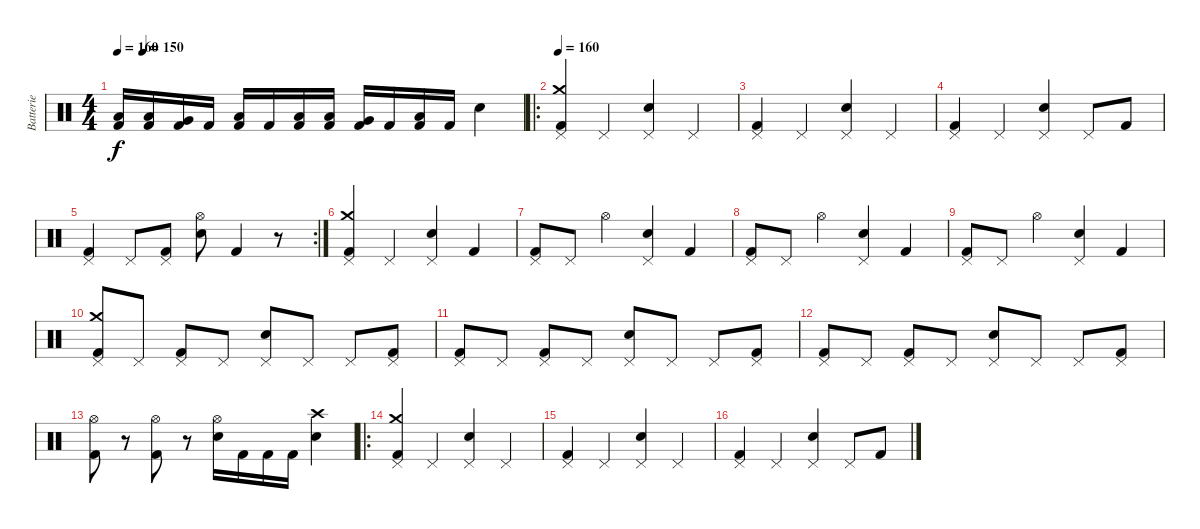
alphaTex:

\track ("Batterie" "Batterie") {instrument percussion}
\staff {score}
\articulation defaults
\ts (4 4)
\tempo 160
\tempo 125
\tempo (150 0.0625)
\tempo 160
\clef neutral
\ks c
("Low Tom (hit)" "Kick (hit) 2").16{dy f} ("Low Floor Tom (hit)" "Kick (hit) 2").16 ("Very Low Tom (hit)" "Kick (hit) 2").16 "Kick (hit) 2".16 ("Low Tom (hit)" "Kick (hit) 2").16 "Kick (hit) 2".16 ("Low Tom (hit)" "Kick (hit) 2").16 ("Low Floor Tom (hit)" "Kick (hit) 2").16 ("Very Low Tom (hit)" "Kick (hit) 2").16 "Kick (hit) 2".16 ("Low Tom (hit)" "Kick (hit) 2").16 "Kick (hit) 2".16 "Electric Snare (hit)".4 |
\ro
\tempo 160
("Crash medium (hit)" "Pedal Hi-Hat (hit)" "Kick (hit) 2").4 "Pedal Hi-Hat (hit)".4 ("Pedal Hi-Hat (hit)" "Electric Snare (hit)").4 "Pedal Hi-Hat (hit)".4 |
("Pedal Hi-Hat (hit)" "Kick (hit) 2").4 "Pedal Hi-Hat (hit)".4 ("Pedal Hi-Hat (hit)" "Electric Snare (hit)").4 "Pedal Hi-Hat (hit)".4 |
("Pedal Hi-Hat (hit)" "Kick (hit) 2").4 "Pedal Hi-Hat (hit)".4 ("Pedal Hi-Hat (hit)" "Electric Snare (hit)").4 "Pedal Hi-Hat (hit)".8 "Kick (hit) 2".8 |
\rc 2
("Pedal Hi-Hat (hit)" "Kick (hit) 2").4 "Pedal Hi-Hat (hit)".8 ("Pedal Hi-Hat (hit)" "Kick (hit) 2").8 ("Hi-Hat (open)" "Electric Snare (hit)").8 "Kick (hit) 2".4 r.8 |
("Crash medium (hit)" "Pedal Hi-Hat (hit)" "Kick (hit) 2").4 "Pedal Hi-Hat (hit)".4 ("Pedal Hi-Hat (hit)" "Electric Snare (hit)").4 "Kick (hit) 2".4 |
("Pedal Hi-Hat (hit)" "Kick (hit) 2").8 "Pedal Hi-Hat (hit)".8 "Hi-Hat (open)".4 ("Pedal Hi-Hat (hit)" "Electric Snare (hit)").4 "Kick (hit) 2".4 |
("Pedal Hi-Hat (hit)" "Kick (hit) 2").8 "Pedal Hi-Hat (hit)".8 "Hi-Hat (open)".4 ("Pedal Hi-Hat (hit)" "Electric Snare (hit)").4 "Kick (hit) 2".4 |
("Pedal Hi-Hat (hit)" "Kick (hit) 2").8 "Pedal Hi-Hat (hit)".8 "Hi-Hat (open)".4 ("Pedal Hi-Hat (hit)" "Electric Snare (hit)").4 "Kick (hit) 2".4 |
("Crash medium (hit)" "Pedal Hi-Hat (hit)" "Kick (hit) 2").8 "Pedal Hi-Hat (hit)".8 ("Pedal Hi-Hat (hit)" "Kick (hit) 2").8 "Pedal Hi-Hat (hit)".8 ("Pedal Hi-Hat (hit)" "Electric Snare (hit)").8 "Pedal Hi-Hat (hit)".8 "Pedal Hi-Hat (hit)".8 ("Pedal Hi-Hat (hit)" "Kick (hit) 2").8 |
("Pedal Hi-Hat (hit)" "Kick (hit) 2").8 "Pedal Hi-Hat (hit)".8 ("Pedal Hi-Hat (hit)" "Kick (hit) 2").8 "Pedal Hi-Hat (hit)".8 ("Pedal Hi-Hat (hit)" "Electric Snare (hit)").8 "Pedal Hi-Hat (hit)".8 "Pedal Hi-Hat (hit)".8 ("Pedal Hi-Hat (hit)" "Kick (hit) 2").8 |
("Pedal Hi-Hat (hit)" "Kick (hit) 2").8 "Pedal Hi-Hat (hit)".8 ("Pedal Hi-Hat (hit)" "Kick (hit) 2").8 "Pedal Hi-Hat (hit)".8 ("Pedal Hi-Hat (hit)" "Electric Snare (hit)").8 "Pedal Hi-Hat (hit)".8 "Pedal Hi-Hat (hit)".8 ("Pedal Hi-Hat (hit)" "Kick (hit) 2").8 |
("Hi-Hat (open)" "Kick (hit) 2").8 r.8 ("Hi-Hat (open)" "Kick (hit) 2").8 r.8 ("Hi-Hat (open)" "Electric Snare (hit)").16 "Kick (hit) 2".16 "Kick (hit) 2".16 "Kick (hit) 2".16 ("Crash high (hit)" "Electric Snare (hit)").4 |
\ro
("Crash medium (hit)" "Pedal Hi-Hat (hit)" "Kick (hit) 2").4 "Pedal Hi-Hat (hit)".4 ("Pedal Hi-Hat (hit)" "Electric Snare (hit)").4 "Pedal Hi-Hat (hit)".4 |
("Pedal Hi-Hat (hit)" "Kick (hit) 2").4 "Pedal Hi-Hat (hit)".4 ("Pedal Hi-Hat (hit)" "Electric Snare (hit)").4 "Pedal Hi-Hat (hit)".4 |
("Pedal Hi-Hat (hit)" "Kick (hit) 2").4 "Pedal Hi-Hat (hit)".4 ("Pedal Hi-Hat (hit)" "Electric Snare (hit)").4 "Pedal Hi-Hat (hit)".8 "Kick (hit) 2".8
